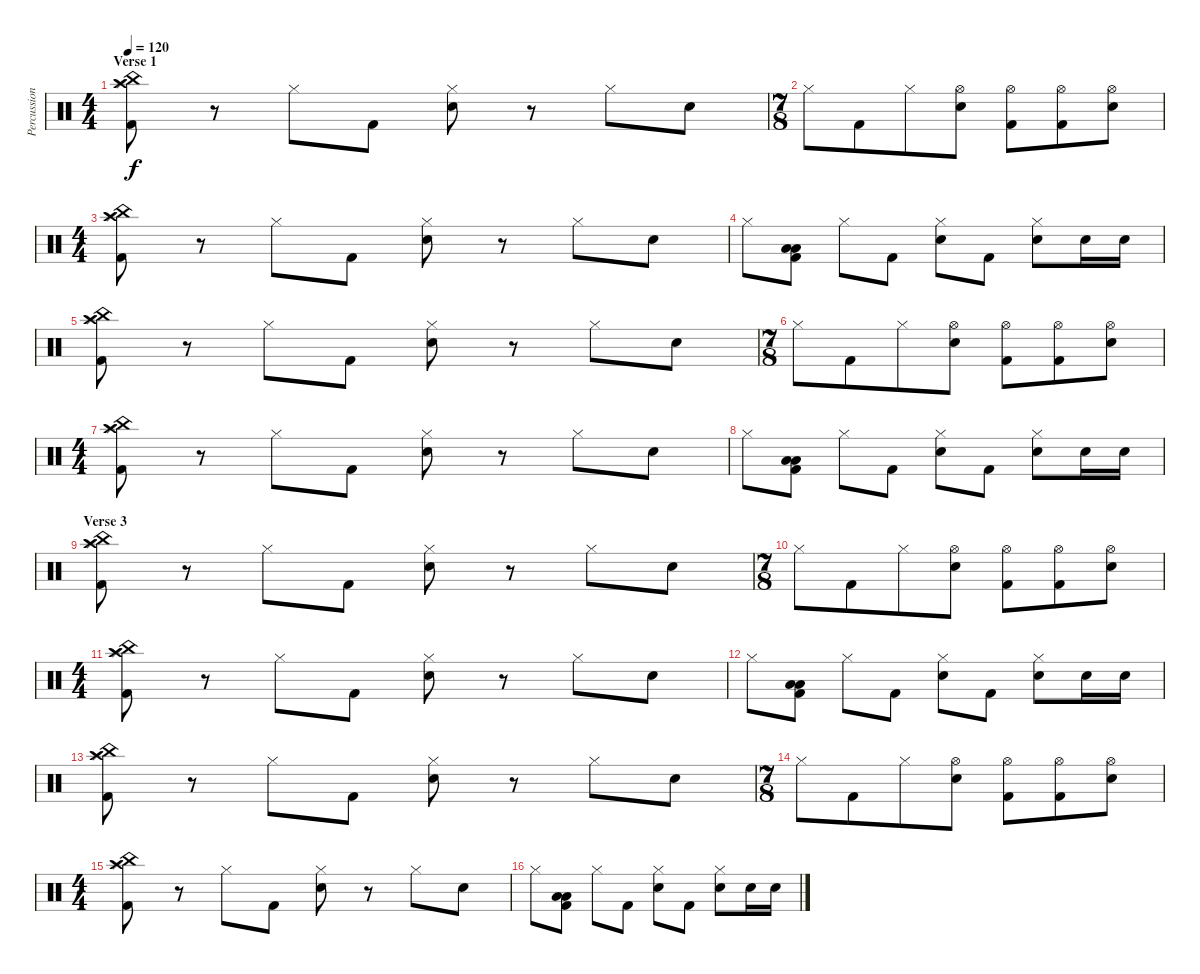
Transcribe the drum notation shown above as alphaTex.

\track ("Percussion" "Percussion") {instrument percussion}
\staff {score}
\articulation defaults
\ts (4 4)
\section ("" "Verse 1")
\tempo 120
\clef neutral
\ks c
("Splash (hit)" "Crash high (hit)" "China (hit)" "Kick (hit) 2").8{dy f} r.8 "Hi-Hat (closed)".8 "Kick (hit) 2".8 ("Hi-Hat (closed)" "Electric Snare (hit)").8 r.8 "Hi-Hat (closed)".8 "Electric Snare (hit)".8 |
\ts (7 8)
"Hi-Hat (closed)".8 "Kick (hit) 2".8 "Hi-Hat (closed)".8 ("Hi-Hat (open)" "Electric Snare (hit)").8 ("Hi-Hat (open)" "Kick (hit) 2").8 ("Hi-Hat (open)" "Kick (hit) 2").8 ("Hi-Hat (open)" "Electric Snare (hit)").8 |
\ts (4 4)
("Splash (hit)" "Crash high (hit)" "China (hit)" "Kick (hit) 2").8 r.8 "Hi-Hat (closed)".8 "Kick (hit) 2".8 ("Hi-Hat (closed)" "Electric Snare (hit)").8 r.8 "Hi-Hat (closed)".8 "Electric Snare (hit)".8 |
"Hi-Hat (closed)".8 ("Low Tom (hit)" "Low Floor Tom (hit)" "Kick (hit) 2").8 "Hi-Hat (closed)".8 "Kick (hit) 2".8 ("Hi-Hat (closed)" "Electric Snare (hit)").8 "Kick (hit) 2".8 ("Hi-Hat (closed)" "Electric Snare (hit)").8 "Electric Snare (hit)".16 "Electric Snare (hit)".16 |
("Splash (hit)" "Crash high (hit)" "China (hit)" "Kick (hit) 2").8 r.8 "Hi-Hat (closed)".8 "Kick (hit) 2".8 ("Hi-Hat (closed)" "Electric Snare (hit)").8 r.8 "Hi-Hat (closed)".8 "Electric Snare (hit)".8 |
\ts (7 8)
"Hi-Hat (closed)".8 "Kick (hit) 2".8 "Hi-Hat (closed)".8 ("Hi-Hat (open)" "Electric Snare (hit)").8 ("Hi-Hat (open)" "Kick (hit) 2").8 ("Hi-Hat (open)" "Kick (hit) 2").8 ("Hi-Hat (open)" "Electric Snare (hit)").8 |
\ts (4 4)
("Splash (hit)" "Crash high (hit)" "China (hit)" "Kick (hit) 2").8 r.8 "Hi-Hat (closed)".8 "Kick (hit) 2".8 ("Hi-Hat (closed)" "Electric Snare (hit)").8 r.8 "Hi-Hat (closed)".8 "Electric Snare (hit)".8 |
"Hi-Hat (closed)".8 ("Low Tom (hit)" "Low Floor Tom (hit)" "Kick (hit) 2").8 "Hi-Hat (closed)".8 "Kick (hit) 2".8 ("Hi-Hat (closed)" "Electric Snare (hit)").8 "Kick (hit) 2".8 ("Hi-Hat (closed)" "Electric Snare (hit)").8 "Electric Snare (hit)".16 "Electric Snare (hit)".16 |
\section ("" "Verse 3")
("Splash (hit)" "Crash high (hit)" "China (hit)" "Kick (hit) 2").8 r.8 "Hi-Hat (closed)".8 "Kick (hit) 2".8 ("Hi-Hat (closed)" "Electric Snare (hit)").8 r.8 "Hi-Hat (closed)".8 "Electric Snare (hit)".8 |
\ts (7 8)
"Hi-Hat (closed)".8 "Kick (hit) 2".8 "Hi-Hat (closed)".8 ("Hi-Hat (open)" "Electric Snare (hit)").8 ("Hi-Hat (open)" "Kick (hit) 2").8 ("Hi-Hat (open)" "Kick (hit) 2").8 ("Hi-Hat (open)" "Electric Snare (hit)").8 |
\ts (4 4)
("Splash (hit)" "Crash high (hit)" "China (hit)" "Kick (hit) 2").8 r.8 "Hi-Hat (closed)".8 "Kick (hit) 2".8 ("Hi-Hat (closed)" "Electric Snare (hit)").8 r.8 "Hi-Hat (closed)".8 "Electric Snare (hit)".8 |
"Hi-Hat (closed)".8 ("Low Tom (hit)" "Low Floor Tom (hit)" "Kick (hit) 2").8 "Hi-Hat (closed)".8 "Kick (hit) 2".8 ("Hi-Hat (closed)" "Electric Snare (hit)").8 "Kick (hit) 2".8 ("Hi-Hat (closed)" "Electric Snare (hit)").8 "Electric Snare (hit)".16 "Electric Snare (hit)".16 |
("Splash (hit)" "Crash high (hit)" "China (hit)" "Kick (hit) 2").8 r.8 "Hi-Hat (closed)".8 "Kick (hit) 2".8 ("Hi-Hat (closed)" "Electric Snare (hit)").8 r.8 "Hi-Hat (closed)".8 "Electric Snare (hit)".8 |
\ts (7 8)
"Hi-Hat (closed)".8 "Kick (hit) 2".8 "Hi-Hat (closed)".8 ("Hi-Hat (open)" "Electric Snare (hit)").8 ("Hi-Hat (open)" "Kick (hit) 2").8 ("Hi-Hat (open)" "Kick (hit) 2").8 ("Hi-Hat (open)" "Electric Snare (hit)").8 |
\ts (4 4)
("Splash (hit)" "Crash high (hit)" "China (hit)" "Kick (hit) 2").8 r.8 "Hi-Hat (closed)".8 "Kick (hit) 2".8 ("Hi-Hat (closed)" "Electric Snare (hit)").8 r.8 "Hi-Hat (closed)".8 "Electric Snare (hit)".8 |
"Hi-Hat (closed)".8 ("Low Tom (hit)" "Low Floor Tom (hit)" "Kick (hit) 2").8 "Hi-Hat (closed)".8 "Kick (hit) 2".8 ("Hi-Hat (closed)" "Electric Snare (hit)").8 "Kick (hit) 2".8 ("Hi-Hat (closed)" "Electric Snare (hit)").8 "Electric Snare (hit)".16 "Electric Snare (hit)".16
